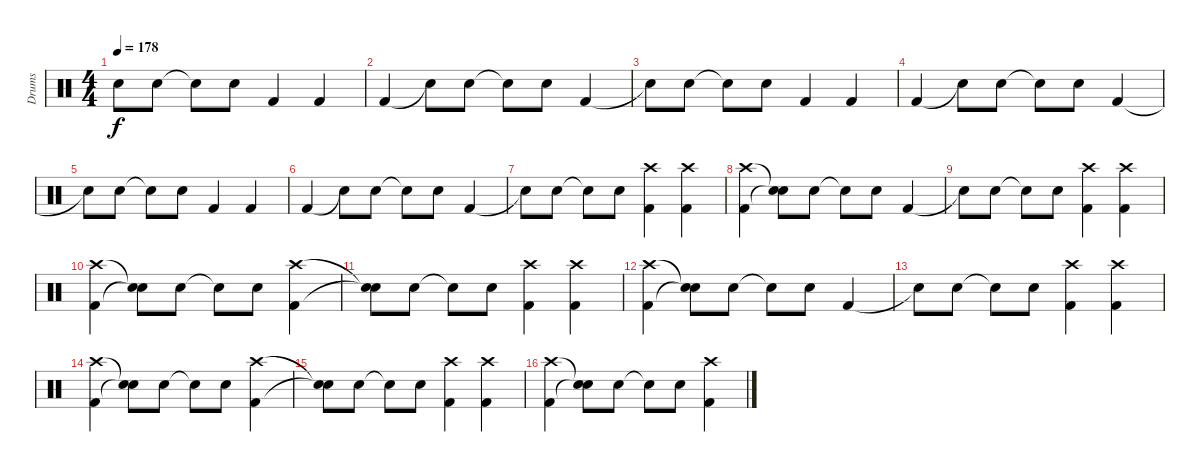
\track ("Drums" "Drums") {mute instrument percussion}
\staff {score}
\articulation defaults
\ts (4 4)
\tempo 178
\clef neutral
\ks c "Snare (hit)"{t}.8{dy f} "Electric Snare (hit)".8 "Snare (hit)"{t}.8 "Electric Snare (hit)".8 "Kick (hit) 2".4 "Kick (hit) 2".4
|
"Kick (hit) 2".4 "Snare (hit)"{t}.8 "Electric Snare (hit)".8 "Snare (hit)"{t}.8 "Electric Snare (hit)".8 "Kick (hit) 2".4 |
"Snare (hit)"{t}.8 "Electric Snare (hit)".8 "Snare (hit)"{t}.8 "Electric Snare (hit)".8 "Kick (hit) 2".4 "Kick (hit) 2".4 |
"Kick (hit) 2".4 "Snare (hit)"{t}.8 "Electric Snare (hit)".8 "Snare (hit)"{t}.8 "Electric Snare (hit)".8 "Kick (hit) 2".4 |
"Snare (hit)"{t}.8 "Electric Snare (hit)".8 "Snare (hit)"{t}.8 "Electric Snare (hit)".8 "Kick (hit) 2".4 "Kick (hit) 2".4 |
"Kick (hit) 2".4 "Snare (hit)"{t}.8 "Electric Snare (hit)".8 "Snare (hit)"{t}.8 "Electric Snare (hit)".8 "Kick (hit) 2".4 |
"Snare (hit)"{t}.8 "Electric Snare (hit)".8 "Snare (hit)"{t}.8 "Electric Snare (hit)".8 ("Crash high (hit)" "Kick (hit) 2").4 ("Crash high (hit)" "Kick (hit) 2").4 |
("Crash high (hit)" "Kick (hit) 2").4 ("Snare (hit)"{t} "Snare (hit)"{t}).8 "Electric Snare (hit)".8 "Snare (hit)"{t}.8 "Electric Snare (hit)".8 "Kick (hit) 2".4 |
"Snare (hit)"{t}.8 "Electric Snare (hit)".8 "Snare (hit)"{t}.8 "Electric Snare (hit)".8 ("Crash high (hit)" "Kick (hit) 2").4 ("Crash high (hit)" "Kick (hit) 2").4 |
("Crash high (hit)" "Kick (hit) 2").4 ("Snare (hit)"{t} "Snare (hit)"{t}).8 "Electric Snare (hit)".8 "Snare (hit)"{t}.8 "Electric Snare (hit)".8 ("Crash high (hit)" "Kick (hit) 2").4 |
("Snare (hit)"{t} "Snare (hit)"{t}).8 "Electric Snare (hit)".8 "Snare (hit)"{t}.8 "Electric Snare (hit)".8 ("Crash high (hit)" "Kick (hit) 2").4 ("Crash high (hit)" "Kick (hit) 2").4 |
("Crash high (hit)" "Kick (hit) 2").4 ("Snare (hit)"{t} "Snare (hit)"{t}).8 "Electric Snare (hit)".8 "Snare (hit)"{t}.8 "Electric Snare (hit)".8 "Kick (hit) 2".4 |
"Snare (hit)"{t}.8 "Electric Snare (hit)".8 "Snare (hit)"{t}.8 "Electric Snare (hit)".8 ("Crash high (hit)" "Kick (hit) 2").4 ("Crash high (hit)" "Kick (hit) 2").4 |
("Crash high (hit)" "Kick (hit) 2").4 ("Snare (hit)"{t} "Snare (hit)"{t}).8 "Electric Snare (hit)".8 "Snare (hit)"{t}.8 "Electric Snare (hit)".8 ("Crash high (hit)" "Kick (hit) 2").4 |
("Snare (hit)"{t} "Snare (hit)"{t}).8 "Electric Snare (hit)".8 "Snare (hit)"{t}.8 "Electric Snare (hit)".8 ("Crash high (hit)" "Kick (hit) 2").4 ("Crash high (hit)" "Kick (hit) 2").4 |
("Crash high (hit)" "Kick (hit) 2").4 ("Snare (hit)"{t} "Snare (hit)"{t}).8 "Electric Snare (hit)".8 "Snare (hit)"{t}.8 "Electric Snare (hit)".8 ("Crash high (hit)" "Kick (hit) 2").4
